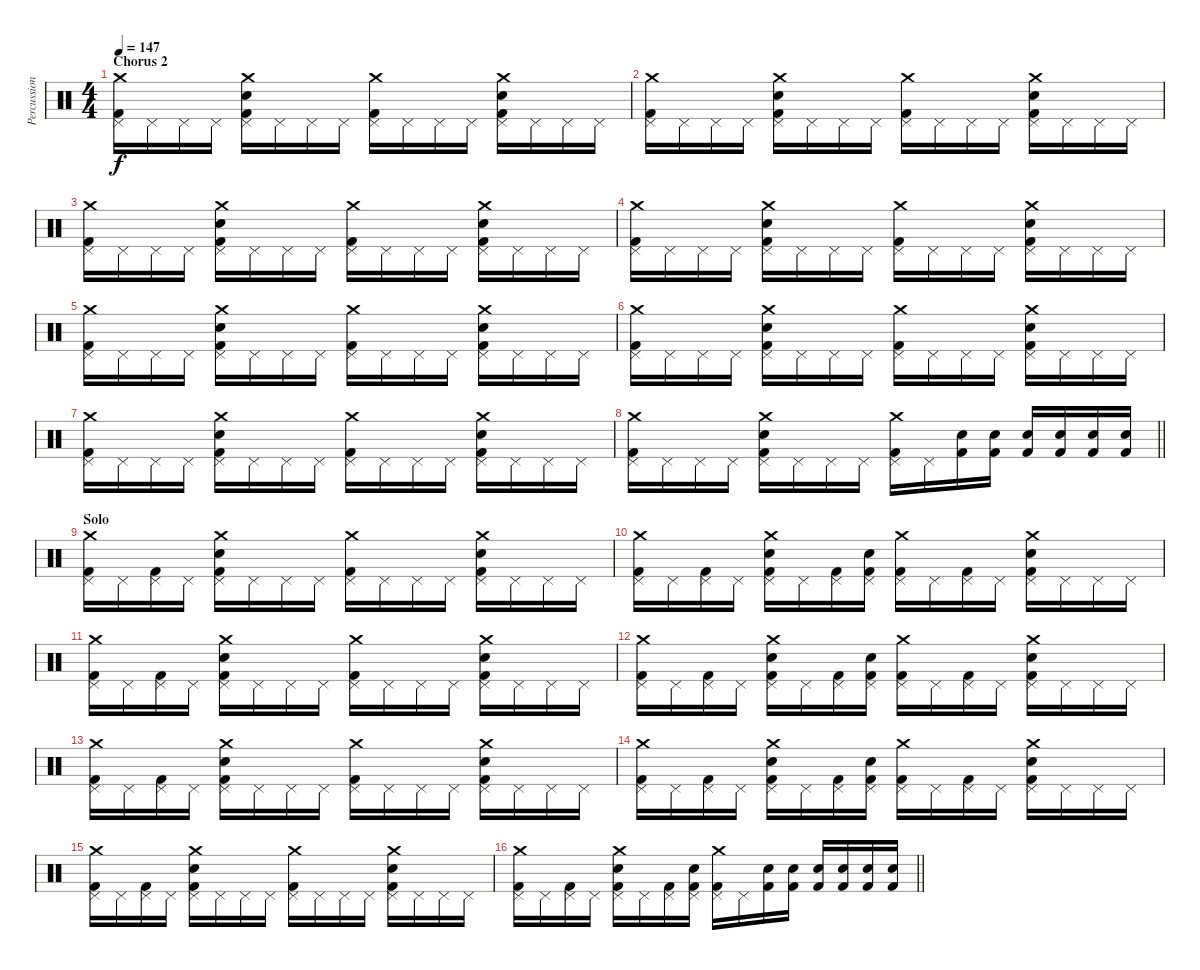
\track ("Percussions" "Percussion") {instrument percussion}
\staff {score}
\articulation defaults
\ts (4 4)
\section ("" "Chorus 2")
\tempo 147
\clef neutral
\ks c
("Crash medium (hit)" "Pedal Hi-Hat (hit)" "Kick (hit) 2").16{dy f} "Pedal Hi-Hat (hit)".16 "Pedal Hi-Hat (hit)".16 "Pedal Hi-Hat (hit)".16 ("Crash medium (hit)" "Pedal Hi-Hat (hit)" "Electric Snare (hit)" "Kick (hit) 2").16 "Pedal Hi-Hat (hit)".16 "Pedal Hi-Hat (hit)".16 "Pedal Hi-Hat (hit)".16 ("Crash medium (hit)" "Pedal Hi-Hat (hit)" "Kick (hit) 2").16 "Pedal Hi-Hat (hit)".16 "Pedal Hi-Hat (hit)".16 "Pedal Hi-Hat (hit)".16 ("Crash medium (hit)" "Pedal Hi-Hat (hit)" "Electric Snare (hit)" "Kick (hit) 2").16 "Pedal Hi-Hat (hit)".16 "Pedal Hi-Hat (hit)".16 "Pedal Hi-Hat (hit)".16 |
("Crash medium (hit)" "Pedal Hi-Hat (hit)" "Kick (hit) 2").16 "Pedal Hi-Hat (hit)".16 "Pedal Hi-Hat (hit)".16 "Pedal Hi-Hat (hit)".16 ("Crash medium (hit)" "Pedal Hi-Hat (hit)" "Electric Snare (hit)" "Kick (hit) 2").16 "Pedal Hi-Hat (hit)".16 "Pedal Hi-Hat (hit)".16 "Pedal Hi-Hat (hit)".16 ("Crash medium (hit)" "Pedal Hi-Hat (hit)" "Kick (hit) 2").16 "Pedal Hi-Hat (hit)".16 "Pedal Hi-Hat (hit)".16 "Pedal Hi-Hat (hit)".16 ("Crash medium (hit)" "Pedal Hi-Hat (hit)" "Electric Snare (hit)" "Kick (hit) 2").16 "Pedal Hi-Hat (hit)".16 "Pedal Hi-Hat (hit)".16 "Pedal Hi-Hat (hit)".16 |
("Crash medium (hit)" "Pedal Hi-Hat (hit)" "Kick (hit) 2").16 "Pedal Hi-Hat (hit)".16 "Pedal Hi-Hat (hit)".16 "Pedal Hi-Hat (hit)".16 ("Crash medium (hit)" "Pedal Hi-Hat (hit)" "Electric Snare (hit)" "Kick (hit) 2").16 "Pedal Hi-Hat (hit)".16 "Pedal Hi-Hat (hit)".16 "Pedal Hi-Hat (hit)".16 ("Crash medium (hit)" "Pedal Hi-Hat (hit)" "Kick (hit) 2").16 "Pedal Hi-Hat (hit)".16 "Pedal Hi-Hat (hit)".16 "Pedal Hi-Hat (hit)".16 ("Crash medium (hit)" "Pedal Hi-Hat (hit)" "Electric Snare (hit)" "Kick (hit) 2").16 "Pedal Hi-Hat (hit)".16 "Pedal Hi-Hat (hit)".16 "Pedal Hi-Hat (hit)".16 |
("Crash medium (hit)" "Pedal Hi-Hat (hit)" "Kick (hit) 2").16 "Pedal Hi-Hat (hit)".16 "Pedal Hi-Hat (hit)".16 "Pedal Hi-Hat (hit)".16 ("Crash medium (hit)" "Pedal Hi-Hat (hit)" "Electric Snare (hit)" "Kick (hit) 2").16 "Pedal Hi-Hat (hit)".16 "Pedal Hi-Hat (hit)".16 "Pedal Hi-Hat (hit)".16 ("Crash medium (hit)" "Pedal Hi-Hat (hit)" "Kick (hit) 2").16 "Pedal Hi-Hat (hit)".16 "Pedal Hi-Hat (hit)".16 "Pedal Hi-Hat (hit)".16 ("Crash medium (hit)" "Pedal Hi-Hat (hit)" "Electric Snare (hit)" "Kick (hit) 2").16 "Pedal Hi-Hat (hit)".16 "Pedal Hi-Hat (hit)".16 "Pedal Hi-Hat (hit)".16 |
("Crash medium (hit)" "Pedal Hi-Hat (hit)" "Kick (hit) 2").16 "Pedal Hi-Hat (hit)".16 "Pedal Hi-Hat (hit)".16 "Pedal Hi-Hat (hit)".16 ("Crash medium (hit)" "Pedal Hi-Hat (hit)" "Electric Snare (hit)" "Kick (hit) 2").16 "Pedal Hi-Hat (hit)".16 "Pedal Hi-Hat (hit)".16 "Pedal Hi-Hat (hit)".16 ("Crash medium (hit)" "Pedal Hi-Hat (hit)" "Kick (hit) 2").16 "Pedal Hi-Hat (hit)".16 "Pedal Hi-Hat (hit)".16 "Pedal Hi-Hat (hit)".16 ("Crash medium (hit)" "Pedal Hi-Hat (hit)" "Electric Snare (hit)" "Kick (hit) 2").16 "Pedal Hi-Hat (hit)".16 "Pedal Hi-Hat (hit)".16 "Pedal Hi-Hat (hit)".16 |
("Crash medium (hit)" "Pedal Hi-Hat (hit)" "Kick (hit) 2").16 "Pedal Hi-Hat (hit)".16 "Pedal Hi-Hat (hit)".16 "Pedal Hi-Hat (hit)".16 ("Crash medium (hit)" "Pedal Hi-Hat (hit)" "Electric Snare (hit)" "Kick (hit) 2").16 "Pedal Hi-Hat (hit)".16 "Pedal Hi-Hat (hit)".16 "Pedal Hi-Hat (hit)".16 ("Crash medium (hit)" "Pedal Hi-Hat (hit)" "Kick (hit) 2").16 "Pedal Hi-Hat (hit)".16 "Pedal Hi-Hat (hit)".16 "Pedal Hi-Hat (hit)".16 ("Crash medium (hit)" "Pedal Hi-Hat (hit)" "Electric Snare (hit)" "Kick (hit) 2").16 "Pedal Hi-Hat (hit)".16 "Pedal Hi-Hat (hit)".16 "Pedal Hi-Hat (hit)".16 |
("Crash medium (hit)" "Pedal Hi-Hat (hit)" "Kick (hit) 2").16 "Pedal Hi-Hat (hit)".16 "Pedal Hi-Hat (hit)".16 "Pedal Hi-Hat (hit)".16 ("Crash medium (hit)" "Pedal Hi-Hat (hit)" "Electric Snare (hit)" "Kick (hit) 2").16 "Pedal Hi-Hat (hit)".16 "Pedal Hi-Hat (hit)".16 "Pedal Hi-Hat (hit)".16 ("Crash medium (hit)" "Pedal Hi-Hat (hit)" "Kick (hit) 2").16 "Pedal Hi-Hat (hit)".16 "Pedal Hi-Hat (hit)".16 "Pedal Hi-Hat (hit)".16 ("Crash medium (hit)" "Pedal Hi-Hat (hit)" "Electric Snare (hit)" "Kick (hit) 2").16 "Pedal Hi-Hat (hit)".16 "Pedal Hi-Hat (hit)".16 "Pedal Hi-Hat (hit)".16 |
\barLineRight lightlight
("Crash medium (hit)" "Pedal Hi-Hat (hit)" "Kick (hit) 2").16 "Pedal Hi-Hat (hit)".16 "Pedal Hi-Hat (hit)".16 "Pedal Hi-Hat (hit)".16 ("Crash medium (hit)" "Pedal Hi-Hat (hit)" "Electric Snare (hit)" "Kick (hit) 2").16 "Pedal Hi-Hat (hit)".16 "Pedal Hi-Hat (hit)".16 "Pedal Hi-Hat (hit)".16 ("Crash medium (hit)" "Pedal Hi-Hat (hit)" "Kick (hit) 2").16 "Pedal Hi-Hat (hit)".16 ("Electric Snare (hit)" "Kick (hit) 2").16 ("Electric Snare (hit)" "Kick (hit) 2").16 ("Electric Snare (hit)" "Kick (hit) 2").16 ("Electric Snare (hit)" "Kick (hit) 2").16 ("Electric Snare (hit)" "Kick (hit) 2").16 ("Electric Snare (hit)" "Kick (hit) 2").16 |
\section ("" "Solo")
("Crash medium (hit)" "Pedal Hi-Hat (hit)" "Kick (hit) 2").16 "Pedal Hi-Hat (hit)".16 ("Pedal Hi-Hat (hit)" "Kick (hit) 2").16 "Pedal Hi-Hat (hit)".16 ("Crash medium (hit)" "Pedal Hi-Hat (hit)" "Electric Snare (hit)" "Kick (hit) 2").16 "Pedal Hi-Hat (hit)".16 "Pedal Hi-Hat (hit)".16 "Pedal Hi-Hat (hit)".16 ("Crash medium (hit)" "Pedal Hi-Hat (hit)" "Kick (hit) 2").16 "Pedal Hi-Hat (hit)".16 "Pedal Hi-Hat (hit)".16 "Pedal Hi-Hat (hit)".16 ("Crash medium (hit)" "Pedal Hi-Hat (hit)" "Electric Snare (hit)" "Kick (hit) 2").16 "Pedal Hi-Hat (hit)".16 "Pedal Hi-Hat (hit)".16 "Pedal Hi-Hat (hit)".16 |
("Crash medium (hit)" "Pedal Hi-Hat (hit)" "Kick (hit) 2").16 "Pedal Hi-Hat (hit)".16 ("Pedal Hi-Hat (hit)" "Kick (hit) 2").16 "Pedal Hi-Hat (hit)".16 ("Crash medium (hit)" "Pedal Hi-Hat (hit)" "Electric Snare (hit)" "Kick (hit) 2").16 "Pedal Hi-Hat (hit)".16 ("Pedal Hi-Hat (hit)" "Kick (hit) 2").16 ("Pedal Hi-Hat (hit)" "Electric Snare (hit)" "Kick (hit) 2").16 ("Crash medium (hit)" "Pedal Hi-Hat (hit)" "Kick (hit) 2").16 "Pedal Hi-Hat (hit)".16 ("Pedal Hi-Hat (hit)" "Kick (hit) 2").16 "Pedal Hi-Hat (hit)".16 ("Crash medium (hit)" "Pedal Hi-Hat (hit)" "Electric Snare (hit)" "Kick (hit) 2").16 "Pedal Hi-Hat (hit)".16 "Pedal Hi-Hat (hit)".16 "Pedal Hi-Hat (hit)".16 |
("Crash medium (hit)" "Pedal Hi-Hat (hit)" "Kick (hit) 2").16 "Pedal Hi-Hat (hit)".16 ("Pedal Hi-Hat (hit)" "Kick (hit) 2").16 "Pedal Hi-Hat (hit)".16 ("Crash medium (hit)" "Pedal Hi-Hat (hit)" "Electric Snare (hit)" "Kick (hit) 2").16 "Pedal Hi-Hat (hit)".16 "Pedal Hi-Hat (hit)".16 "Pedal Hi-Hat (hit)".16 ("Crash medium (hit)" "Pedal Hi-Hat (hit)" "Kick (hit) 2").16 "Pedal Hi-Hat (hit)".16 "Pedal Hi-Hat (hit)".16 "Pedal Hi-Hat (hit)".16 ("Crash medium (hit)" "Pedal Hi-Hat (hit)" "Electric Snare (hit)" "Kick (hit) 2").16 "Pedal Hi-Hat (hit)".16 "Pedal Hi-Hat (hit)".16 "Pedal Hi-Hat (hit)".16 |
("Crash medium (hit)" "Pedal Hi-Hat (hit)" "Kick (hit) 2").16 "Pedal Hi-Hat (hit)".16 ("Pedal Hi-Hat (hit)" "Kick (hit) 2").16 "Pedal Hi-Hat (hit)".16 ("Crash medium (hit)" "Pedal Hi-Hat (hit)" "Electric Snare (hit)" "Kick (hit) 2").16 "Pedal Hi-Hat (hit)".16 ("Pedal Hi-Hat (hit)" "Kick (hit) 2").16 ("Pedal Hi-Hat (hit)" "Electric Snare (hit)" "Kick (hit) 2").16 ("Crash medium (hit)" "Pedal Hi-Hat (hit)" "Kick (hit) 2").16 "Pedal Hi-Hat (hit)".16 ("Pedal Hi-Hat (hit)" "Kick (hit) 2").16 "Pedal Hi-Hat (hit)".16 ("Crash medium (hit)" "Pedal Hi-Hat (hit)" "Electric Snare (hit)" "Kick (hit) 2").16 "Pedal Hi-Hat (hit)".16 "Pedal Hi-Hat (hit)".16 "Pedal Hi-Hat (hit)".16 |
("Crash medium (hit)" "Pedal Hi-Hat (hit)" "Kick (hit) 2").16 "Pedal Hi-Hat (hit)".16 ("Pedal Hi-Hat (hit)" "Kick (hit) 2").16 "Pedal Hi-Hat (hit)".16 ("Crash medium (hit)" "Pedal Hi-Hat (hit)" "Electric Snare (hit)" "Kick (hit) 2").16 "Pedal Hi-Hat (hit)".16 "Pedal Hi-Hat (hit)".16 "Pedal Hi-Hat (hit)".16 ("Crash medium (hit)" "Pedal Hi-Hat (hit)" "Kick (hit) 2").16 "Pedal Hi-Hat (hit)".16 "Pedal Hi-Hat (hit)".16 "Pedal Hi-Hat (hit)".16 ("Crash medium (hit)" "Pedal Hi-Hat (hit)" "Electric Snare (hit)" "Kick (hit) 2").16 "Pedal Hi-Hat (hit)".16 "Pedal Hi-Hat (hit)".16 "Pedal Hi-Hat (hit)".16 |
("Crash medium (hit)" "Pedal Hi-Hat (hit)" "Kick (hit) 2").16 "Pedal Hi-Hat (hit)".16 ("Pedal Hi-Hat (hit)" "Kick (hit) 2").16 "Pedal Hi-Hat (hit)".16 ("Crash medium (hit)" "Pedal Hi-Hat (hit)" "Electric Snare (hit)" "Kick (hit) 2").16 "Pedal Hi-Hat (hit)".16 ("Pedal Hi-Hat (hit)" "Kick (hit) 2").16 ("Pedal Hi-Hat (hit)" "Electric Snare (hit)" "Kick (hit) 2").16 ("Crash medium (hit)" "Pedal Hi-Hat (hit)" "Kick (hit) 2").16 "Pedal Hi-Hat (hit)".16 ("Pedal Hi-Hat (hit)" "Kick (hit) 2").16 "Pedal Hi-Hat (hit)".16 ("Crash medium (hit)" "Pedal Hi-Hat (hit)" "Electric Snare (hit)" "Kick (hit) 2").16 "Pedal Hi-Hat (hit)".16 "Pedal Hi-Hat (hit)".16 "Pedal Hi-Hat (hit)".16 |
("Crash medium (hit)" "Pedal Hi-Hat (hit)" "Kick (hit) 2").16 "Pedal Hi-Hat (hit)".16 ("Pedal Hi-Hat (hit)" "Kick (hit) 2").16 "Pedal Hi-Hat (hit)".16 ("Crash medium (hit)" "Pedal Hi-Hat (hit)" "Electric Snare (hit)" "Kick (hit) 2").16 "Pedal Hi-Hat (hit)".16 "Pedal Hi-Hat (hit)".16 "Pedal Hi-Hat (hit)".16 ("Crash medium (hit)" "Pedal Hi-Hat (hit)" "Kick (hit) 2").16 "Pedal Hi-Hat (hit)".16 "Pedal Hi-Hat (hit)".16 "Pedal Hi-Hat (hit)".16 ("Crash medium (hit)" "Pedal Hi-Hat (hit)" "Electric Snare (hit)" "Kick (hit) 2").16 "Pedal Hi-Hat (hit)".16 "Pedal Hi-Hat (hit)".16 "Pedal Hi-Hat (hit)".16 |
\barLineRight lightlight
("Crash medium (hit)" "Pedal Hi-Hat (hit)" "Kick (hit) 2").16 "Pedal Hi-Hat (hit)".16 ("Pedal Hi-Hat (hit)" "Kick (hit) 2").16 "Pedal Hi-Hat (hit)".16 ("Crash medium (hit)" "Pedal Hi-Hat (hit)" "Electric Snare (hit)" "Kick (hit) 2").16 "Pedal Hi-Hat (hit)".16 ("Pedal Hi-Hat (hit)" "Kick (hit) 2").16 ("Pedal Hi-Hat (hit)" "Electric Snare (hit)" "Kick (hit) 2").16 ("Crash medium (hit)" "Pedal Hi-Hat (hit)" "Kick (hit) 2").16 "Pedal Hi-Hat (hit)".16 ("Electric Snare (hit)" "Kick (hit) 2").16 ("Electric Snare (hit)" "Kick (hit) 2").16 ("Electric Snare (hit)" "Kick (hit) 2").16 ("Electric Snare (hit)" "Kick (hit) 2").16 ("Electric Snare (hit)" "Kick (hit) 2").16 ("Electric Snare (hit)" "Kick (hit) 2").16
